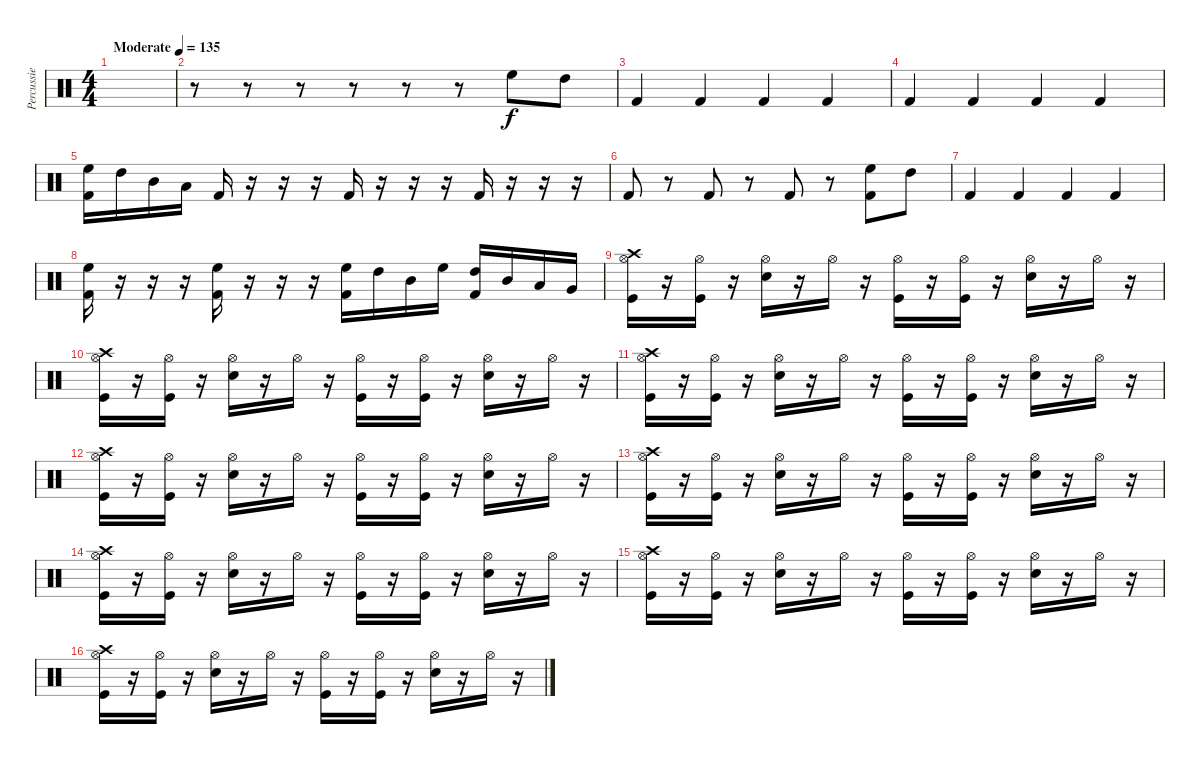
\track ("Percussie" "Percussie") {instrument percussion}
\staff {score}
\articulation defaults
\ts (4 4)
\tempo (135 "Moderate")
\clef neutral
\ks c
|
r.8 r.8 r.8 r.8 r.8 r.8 "High Floor Tom (hit)".8 "High Tom (hit)".8 |
"Kick (hit) 2".4 "Kick (hit) 2".4 "Kick (hit) 2".4 "Kick (hit) 2".4 |
"Kick (hit) 2".4 "Kick (hit) 2".4 "Kick (hit) 2".4 "Kick (hit) 2".4 |
("High Floor Tom (hit)" "Kick (hit) 2").16 "High Tom (hit)".16 "Mid Tom (hit)".16 "Low Tom (hit)".16 "Kick (hit) 2".16 r.16 r.16 r.16 "Kick (hit) 2".16 r.16 r.16 r.16 "Kick (hit) 2".16 r.16 r.16 r.16 |
"Kick (hit) 2".8 r.8 "Kick (hit) 2".8 r.8 "Kick (hit) 2".8 r.8 ("High Floor Tom (hit)" "Kick (hit) 2").8 "High Tom (hit)".8 |
"Kick (hit) 2".4 "Kick (hit) 2".4 "Kick (hit) 2".4 "Kick (hit) 2".4 |
("High Floor Tom (hit)" "Kick (hit) 2").16 r.16 r.16 r.16 ("High Floor Tom (hit)" "Kick (hit) 2").16 r.16 r.16 r.16 ("High Floor Tom (hit)" "Kick (hit) 2").16 "High Tom (hit)".16 "Mid Tom (hit)".16 "High Floor Tom (hit)".16 ("High Tom (hit)" "Kick (hit) 2").16 "Mid Tom (hit)".16 "Low Tom (hit)".16 "Very Low Tom (hit)".16 |
("Hi-Hat (open)" "Kick (hit)" "Crash high (hit)").16 r.16 ("Hi-Hat (open)" "Kick (hit)").16 r.16 ("Electric Snare (hit)" "Hi-Hat (open)").16 r.16 "Hi-Hat (open)".16 r.16 ("Kick (hit)" "Hi-Hat (open)").16 r.16 ("Hi-Hat (open)" "Kick (hit)").16 r.16 ("Electric Snare (hit)" "Hi-Hat (open)").16 r.16 "Hi-Hat (open)".16 r.16 |
("Hi-Hat (open)" "Kick (hit)" "Crash high (hit)").16 r.16 ("Hi-Hat (open)" "Kick (hit)").16 r.16 ("Electric Snare (hit)" "Hi-Hat (open)").16 r.16 "Hi-Hat (open)".16 r.16 ("Kick (hit)" "Hi-Hat (open)").16 r.16 ("Hi-Hat (open)" "Kick (hit)").16 r.16 ("Electric Snare (hit)" "Hi-Hat (open)").16 r.16 "Hi-Hat (open)".16 r.16 |
("Hi-Hat (open)" "Kick (hit)" "Crash high (hit)").16 r.16 ("Hi-Hat (open)" "Kick (hit)").16 r.16 ("Electric Snare (hit)" "Hi-Hat (open)").16 r.16 "Hi-Hat (open)".16 r.16 ("Kick (hit)" "Hi-Hat (open)").16 r.16 ("Hi-Hat (open)" "Kick (hit)").16 r.16 ("Electric Snare (hit)" "Hi-Hat (open)").16 r.16 "Hi-Hat (open)".16 r.16 |
("Hi-Hat (open)" "Kick (hit)" "Crash high (hit)").16 r.16 ("Hi-Hat (open)" "Kick (hit)").16 r.16 ("Electric Snare (hit)" "Hi-Hat (open)").16 r.16 "Hi-Hat (open)".16 r.16 ("Kick (hit)" "Hi-Hat (open)").16 r.16 ("Hi-Hat (open)" "Kick (hit)").16 r.16 ("Electric Snare (hit)" "Hi-Hat (open)").16 r.16 "Hi-Hat (open)".16 r.16 |
("Hi-Hat (open)" "Kick (hit)" "Crash high (hit)").16 r.16 ("Hi-Hat (open)" "Kick (hit)").16 r.16 ("Electric Snare (hit)" "Hi-Hat (open)").16 r.16 "Hi-Hat (open)".16 r.16 ("Kick (hit)" "Hi-Hat (open)").16 r.16 ("Hi-Hat (open)" "Kick (hit)").16 r.16 ("Electric Snare (hit)" "Hi-Hat (open)").16 r.16 "Hi-Hat (open)".16 r.16 |
("Hi-Hat (open)" "Kick (hit)" "Crash high (hit)").16 r.16 ("Hi-Hat (open)" "Kick (hit)").16 r.16 ("Electric Snare (hit)" "Hi-Hat (open)").16 r.16 "Hi-Hat (open)".16 r.16 ("Kick (hit)" "Hi-Hat (open)").16 r.16 ("Hi-Hat (open)" "Kick (hit)").16 r.16 ("Electric Snare (hit)" "Hi-Hat (open)").16 r.16 "Hi-Hat (open)".16 r.16 |
("Hi-Hat (open)" "Kick (hit)" "Crash high (hit)").16 r.16 ("Hi-Hat (open)" "Kick (hit)").16 r.16 ("Electric Snare (hit)" "Hi-Hat (open)").16 r.16 "Hi-Hat (open)".16 r.16 ("Kick (hit)" "Hi-Hat (open)").16 r.16 ("Hi-Hat (open)" "Kick (hit)").16 r.16 ("Electric Snare (hit)" "Hi-Hat (open)").16 r.16 "Hi-Hat (open)".16 r.16 |
("Hi-Hat (open)" "Kick (hit)" "Crash high (hit)").16 r.16 ("Hi-Hat (open)" "Kick (hit)").16 r.16 ("Electric Snare (hit)" "Hi-Hat (open)").16 r.16 "Hi-Hat (open)".16 r.16 ("Kick (hit)" "Hi-Hat (open)").16 r.16 ("Hi-Hat (open)" "Kick (hit)").16 r.16 ("Electric Snare (hit)" "Hi-Hat (open)").16 r.16 "Hi-Hat (open)".16 r.16
